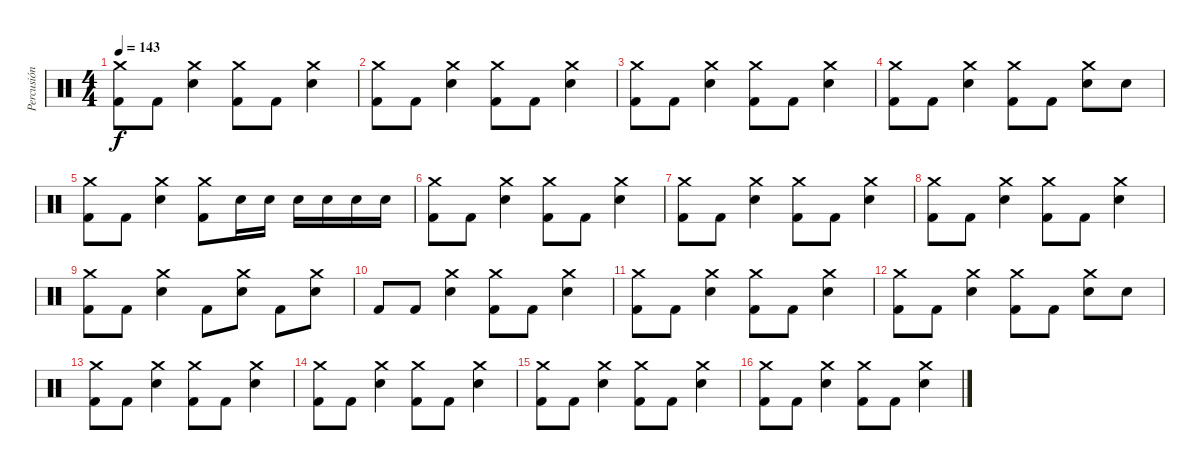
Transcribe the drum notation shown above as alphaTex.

\track ("Percusión" "Percusión") {instrument percussion}
\staff {score}
\articulation defaults
\ts (4 4)
\tempo 143
\clef neutral
\ks c
("Crash medium (hit)" "Kick (hit) 2").8{dy f} "Kick (hit) 2".8 ("Crash medium (hit)" "Snare (hit) 2").4 ("Crash medium (hit)" "Kick (hit) 2").8 "Kick (hit) 2".8 ("Crash medium (hit)" "Snare (hit) 2").4 |
("Crash medium (hit)" "Kick (hit) 2").8 "Kick (hit) 2".8 ("Crash medium (hit)" "Snare (hit) 2").4 ("Crash medium (hit)" "Kick (hit) 2").8 "Kick (hit) 2".8 ("Crash medium (hit)" "Snare (hit) 2").4 |
("Crash medium (hit)" "Kick (hit) 2").8 "Kick (hit) 2".8 ("Crash medium (hit)" "Snare (hit) 2").4 ("Crash medium (hit)" "Kick (hit) 2").8 "Kick (hit) 2".8 ("Crash medium (hit)" "Snare (hit) 2").4 |
("Crash medium (hit)" "Kick (hit) 2").8 "Kick (hit) 2".8 ("Crash medium (hit)" "Snare (hit) 2").4 ("Crash medium (hit)" "Kick (hit) 2").8 "Kick (hit) 2".8 ("Crash medium (hit)" "Snare (hit) 2").8 "Snare (hit) 2".8 |
("Crash medium (hit)" "Kick (hit) 2").8 "Kick (hit) 2".8 ("Crash medium (hit)" "Snare (hit) 2").4 ("Crash medium (hit)" "Kick (hit) 2").8 "Snare (hit) 2".16 "Snare (hit) 2".16 "Snare (hit) 2".16 "Snare (hit) 2".16 "Snare (hit) 2".16 "Snare (hit) 2".16 |
("Crash medium (hit)" "Kick (hit) 2").8 "Kick (hit) 2".8 ("Crash medium (hit)" "Snare (hit) 2").4 ("Crash medium (hit)" "Kick (hit) 2").8 "Kick (hit) 2".8 ("Crash medium (hit)" "Snare (hit) 2").4 |
("Crash medium (hit)" "Kick (hit) 2").8 "Kick (hit) 2".8 ("Crash medium (hit)" "Snare (hit) 2").4 ("Crash medium (hit)" "Kick (hit) 2").8 "Kick (hit) 2".8 ("Crash medium (hit)" "Snare (hit) 2").4 |
("Crash medium (hit)" "Kick (hit) 2").8 "Kick (hit) 2".8 ("Crash medium (hit)" "Snare (hit) 2").4 ("Crash medium (hit)" "Kick (hit) 2").8 "Kick (hit) 2".8 ("Crash medium (hit)" "Snare (hit) 2").4 |
("Crash medium (hit)" "Kick (hit) 2").8 "Kick (hit) 2".8 ("Crash medium (hit)" "Snare (hit) 2").4 "Kick (hit) 2".8 ("Crash medium (hit)" "Snare (hit) 2").8 "Kick (hit) 2".8 ("Crash medium (hit)" "Snare (hit) 2").8 |
"Kick (hit) 2".8 "Kick (hit) 2".8 ("Crash medium (hit)" "Snare (hit) 2").4 ("Crash medium (hit)" "Kick (hit) 2").8 "Kick (hit) 2".8 ("Crash medium (hit)" "Snare (hit) 2").4 |
("Crash medium (hit)" "Kick (hit) 2").8 "Kick (hit) 2".8 ("Crash medium (hit)" "Snare (hit) 2").4 ("Crash medium (hit)" "Kick (hit) 2").8 "Kick (hit) 2".8 ("Crash medium (hit)" "Snare (hit) 2").4 |
("Crash medium (hit)" "Kick (hit) 2").8 "Kick (hit) 2".8 ("Crash medium (hit)" "Snare (hit) 2").4 ("Crash medium (hit)" "Kick (hit) 2").8 "Kick (hit) 2".8 ("Crash medium (hit)" "Snare (hit) 2").8 "Snare (hit) 2".8 |
("Crash medium (hit)" "Kick (hit) 2").8 "Kick (hit) 2".8 ("Crash medium (hit)" "Snare (hit) 2").4 ("Crash medium (hit)" "Kick (hit) 2").8 "Kick (hit) 2".8 ("Crash medium (hit)" "Snare (hit) 2").4 |
("Crash medium (hit)" "Kick (hit) 2").8 "Kick (hit) 2".8 ("Crash medium (hit)" "Snare (hit) 2").4 ("Crash medium (hit)" "Kick (hit) 2").8 "Kick (hit) 2".8 ("Crash medium (hit)" "Snare (hit) 2").4 |
("Crash medium (hit)" "Kick (hit) 2").8 "Kick (hit) 2".8 ("Crash medium (hit)" "Snare (hit) 2").4 ("Crash medium (hit)" "Kick (hit) 2").8 "Kick (hit) 2".8 ("Crash medium (hit)" "Snare (hit) 2").4 |
("Crash medium (hit)" "Kick (hit) 2").8 "Kick (hit) 2".8 ("Crash medium (hit)" "Snare (hit) 2").4 ("Crash medium (hit)" "Kick (hit) 2").8 "Kick (hit) 2".8 ("Crash medium (hit)" "Snare (hit) 2").4
